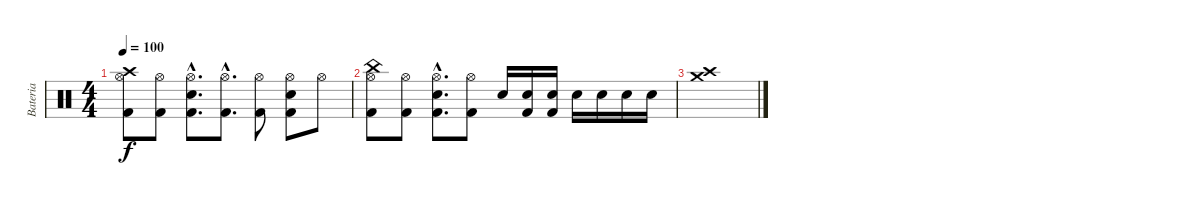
\track ("Bateria" "Bateria") {instrument percussion}
\staff {score}
\articulation defaults
\ts (4 4)
\tempo 100
\clef neutral
\ks c
("Kick (hit) 2" "Crash high (hit)" "Hi-Hat (open)").8{dy f} ("Kick (hit) 2" "Hi-Hat (open)").8 ("Kick (hit) 2"{hac} "Electric Snare (hit)"{hac} "Hi-Hat (open)"{hac}).8{d} ("Kick (hit) 2"{hac} "Hi-Hat (open)"{hac}).8{d} ("Kick (hit) 2" "Hi-Hat (open)").8 ("Kick (hit) 2" "Electric Snare (hit)" "Hi-Hat (open)").8 "Hi-Hat (open)".8 |
("Kick (hit) 2" "China (hit)" "Hi-Hat (open)").8 ("Kick (hit) 2" "Hi-Hat (open)").8 ("Kick (hit) 2"{hac} "Electric Snare (hit)"{hac} "Hi-Hat (open)"{hac}).8{d} ("Kick (hit) 2" "Hi-Hat (open)").8 "Electric Snare (hit)".16 ("Kick (hit) 2" "Electric Snare (hit)").16 ("Kick (hit) 2" "Electric Snare (hit)").16 "Electric Snare (hit)".16 "Electric Snare (hit)".16 "Electric Snare (hit)".16 "Electric Snare (hit)".16 |
("Crash high (hit)" "Crash medium (hit)").1
